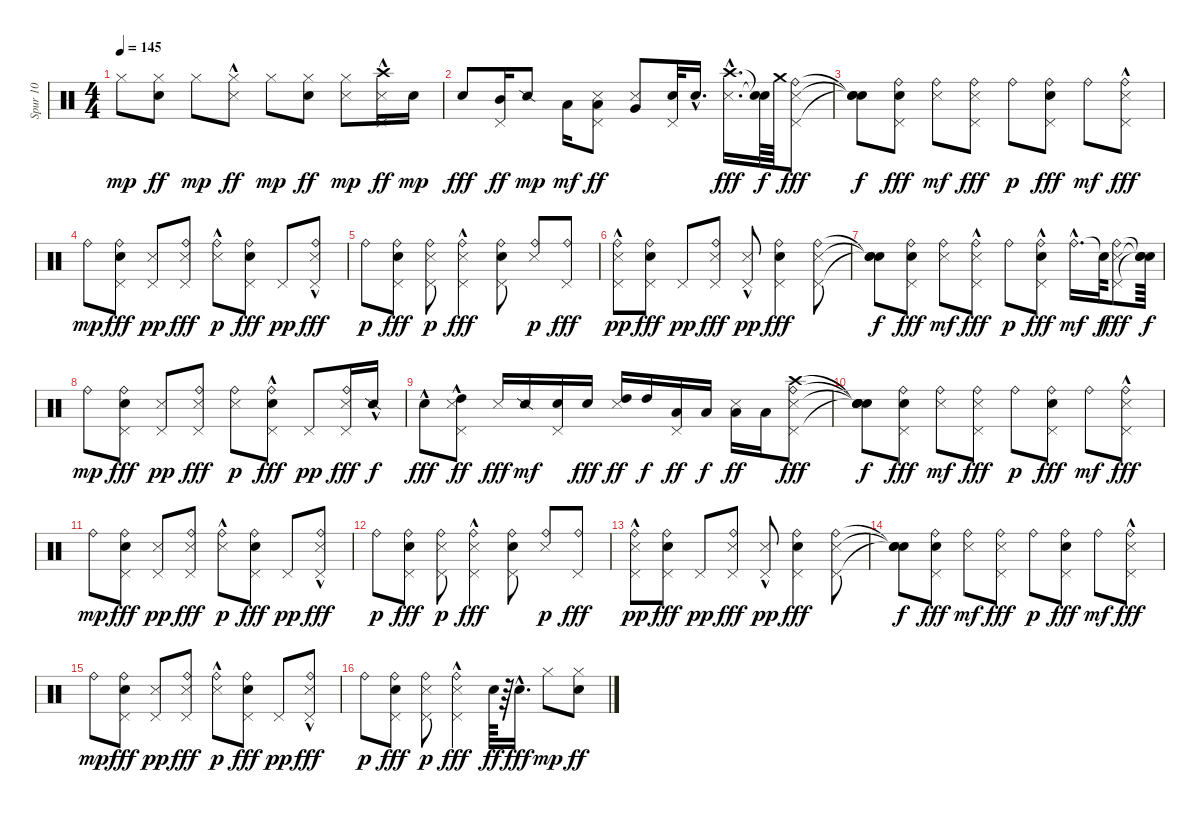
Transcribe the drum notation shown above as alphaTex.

\track ("Spur 10" "Spur 10") {instrument percussion}
\staff {score}
\articulation defaults
\ts (4 4)
\tempo 145
\clef neutral
\ks c "Hi-Hat (closed)".8{dy mp}
("Electric Snare (hit)" "Hi-Hat (closed)").8{dy ff} "Hi-Hat (closed)".8{dy mp} ("Metronome (hit)"{hac} "Hi-Hat (closed)").8{dy ff} "Hi-Hat (closed)".8{dy mp} ("Electric Snare (hit)" "Hi-Hat (closed)").8{dy ff} ("Metronome (hit)" "Hi-Hat (closed)").8{dy mp} ("Metronome (hit)" "Pedal Hi-Hat (hit)" "Crash high (hit)"{hac}).16{dy ff} "Electric Snare (hit)".16{dy mp} |
"Electric Snare (hit)".8{dy fff} ("Pedal Hi-Hat (hit)" "Mid Tom (hit)").16{dy ff} "Snare (side stick) 2".8{dy mp} "Low Tom (hit)".16{dy mf} ("Metronome (hit)" "Low Floor Tom (hit)" "Pedal Hi-Hat (hit)").8{dy ff} ("Metronome (hit)" "Very Low Tom (hit)").8 ("Electric Snare (hit)" "Pedal Hi-Hat (hit)").32 "Electric Snare (hit)"{hac}.16{d} ("Metronome (hit)"{hac} "Crash high (hit)"{hac}).16{d dy fff} ("Snare (hit)"{t} "Snare (hit)"{t}).64{dy f} "Crash medium (hit)".64 ("Metronome (hit)" "Pedal Hi-Hat (hit)" "Ride (bell)").8{dy fff} |
("Snare (hit)"{t} "Snare (hit)"{t} "Snare (hit)"{t}).8{dy f} ("Electric Snare (hit)" "Pedal Hi-Hat (hit)" "Ride (bell)").8{dy fff} ("Metronome (hit)" "Ride (bell)").8{dy mf} ("Metronome (hit)" "Pedal Hi-Hat (hit)" "Ride (bell)").8{dy fff} "Ride (bell)".8{dy p} ("Electric Snare (hit)" "Pedal Hi-Hat (hit)" "Ride (bell)").8{dy fff} "Ride (bell)".8{dy mf} ("Metronome (hit)"{hac} "Pedal Hi-Hat (hit)" "Ride (bell)").8{dy fff} |
"Ride (bell)".8{dy mp} ("Electric Snare (hit)" "Pedal Hi-Hat (hit)" "Ride (bell)").8{dy fff} ("Metronome (hit)" "Pedal Hi-Hat (hit)").8{dy pp} ("Metronome (hit)" "Pedal Hi-Hat (hit)" "Ride (bell)").8{dy fff} ("Metronome (hit)"{hac} "Ride (bell)").8{dy p} ("Electric Snare (hit)" "Pedal Hi-Hat (hit)" "Ride (bell)").8{dy fff} "Pedal Hi-Hat (hit)".8{dy pp} ("Metronome (hit)"{hac} "Pedal Hi-Hat (hit)" "Ride (bell)").8{dy fff} |
"Ride (bell)".8{dy p} ("Electric Snare (hit)" "Pedal Hi-Hat (hit)" "Ride (bell)").8{dy fff} ("Metronome (hit)" "Pedal Hi-Hat (hit)" "Ride (bell)").8{dy p} ("Metronome (hit)"{hac} "Pedal Hi-Hat (hit)" "Ride (bell)").4{dy fff} ("Electric Snare (hit)" "Pedal Hi-Hat (hit)" "Ride (bell)").8 ("Metronome (hit)" "Ride (bell)").8{dy p} ("Pedal Hi-Hat (hit)" "Ride (bell)").8{dy fff} |
("Metronome (hit)"{hac} "Pedal Hi-Hat (hit)" "Ride (bell)").8{dy pp} ("Electric Snare (hit)" "Pedal Hi-Hat (hit)" "Ride (bell)").8{dy fff} "Pedal Hi-Hat (hit)".8{dy pp} ("Metronome (hit)" "Pedal Hi-Hat (hit)" "Ride (bell)").8{dy fff} ("Metronome (hit)"{hac} "Pedal Hi-Hat (hit)").8{dy pp} ("Electric Snare (hit)" "Pedal Hi-Hat (hit)" "Ride (bell)").4{dy fff} ("Metronome (hit)" "Pedal Hi-Hat (hit)" "Ride (bell)").8 |
("Snare (hit)"{t} "Snare (hit)"{t} "Snare (hit)"{t}).8{dy f} ("Electric Snare (hit)" "Pedal Hi-Hat (hit)" "Ride (bell)").8{dy fff} ("Metronome (hit)" "Ride (bell)").8{dy mf} ("Metronome (hit)"{hac} "Pedal Hi-Hat (hit)" "Ride (bell)").8{dy fff} "Ride (bell)".8{dy p} ("Electric Snare (hit)" "Pedal Hi-Hat (hit)"{hac} "Ride (bell)").8{dy fff} "Ride (bell)"{hac}.16{d dy mf} "Snare (hit)"{t}.64{dy f} ("Metronome (hit)" "Pedal Hi-Hat (hit)" "Ride (bell)").8{dy fff} ("Snare (hit)"{t} "Snare (hit)"{t} "Snare (hit)"{t}).64{dy f} |
"Ride (bell)".8{dy mp} ("Electric Snare (hit)" "Pedal Hi-Hat (hit)" "Ride (bell)").8{dy fff} ("Metronome (hit)" "Pedal Hi-Hat (hit)").8{dy pp} ("Metronome (hit)" "Pedal Hi-Hat (hit)" "Ride (bell)").8{dy fff} ("Metronome (hit)" "Ride (bell)").8{dy p} ("Electric Snare (hit)"{hac} "Pedal Hi-Hat (hit)" "Ride (bell)").8{dy fff} "Pedal Hi-Hat (hit)".8{dy pp} ("Metronome (hit)" "Pedal Hi-Hat (hit)" "Ride (bell)").16{dy fff} "Snare (side stick) 2"{hac}.16{dy f} |
"Electric Snare (hit)"{hac}.8{dy fff} ("Metronome (hit)" "Pedal Hi-Hat (hit)" "High Tom (hit)"{hac}).8{dy ff} "Metronome (hit)".16{dy fff} "Snare (side stick) 2".16{dy mf} ("Electric Snare (hit)" "Pedal Hi-Hat (hit)").16 "Electric Snare (hit)".16{dy fff} ("Metronome (hit)" "High Tom (hit)").16{dy ff} "High Tom (hit)".16{dy f} ("Pedal Hi-Hat (hit)" "Low Tom (hit)").16{dy ff} "Low Tom (hit)".16{dy f} ("Metronome (hit)" "Low Floor Tom (hit)").16{dy ff} "Low Floor Tom (hit)".16 ("Crash high (hit)" "Metronome (hit)" "Pedal Hi-Hat (hit)" "Ride (bell)").8{dy fff} |
("Snare (hit)"{t} "Snare (hit)"{t} "Snare (hit)"{t} "Snare (hit)"{t}).8{dy f} ("Electric Snare (hit)" "Pedal Hi-Hat (hit)" "Ride (bell)").8{dy fff} ("Metronome (hit)" "Ride (bell)").8{dy mf} ("Metronome (hit)" "Pedal Hi-Hat (hit)" "Ride (bell)").8{dy fff} "Ride (bell)".8{dy p} ("Electric Snare (hit)" "Pedal Hi-Hat (hit)" "Ride (bell)").8{dy fff} "Ride (bell)".8{dy mf} ("Metronome (hit)"{hac} "Pedal Hi-Hat (hit)" "Ride (bell)").8{dy fff} |
"Ride (bell)".8{dy mp} ("Electric Snare (hit)" "Pedal Hi-Hat (hit)" "Ride (bell)").8{dy fff} ("Metronome (hit)" "Pedal Hi-Hat (hit)").8{dy pp} ("Metronome (hit)" "Pedal Hi-Hat (hit)" "Ride (bell)").8{dy fff} ("Metronome (hit)"{hac} "Ride (bell)").8{dy p} ("Electric Snare (hit)" "Pedal Hi-Hat (hit)" "Ride (bell)").8{dy fff} "Pedal Hi-Hat (hit)".8{dy pp} ("Metronome (hit)"{hac} "Pedal Hi-Hat (hit)" "Ride (bell)").8{dy fff} |
"Ride (bell)".8{dy p} ("Electric Snare (hit)" "Pedal Hi-Hat (hit)" "Ride (bell)").8{dy fff} ("Metronome (hit)" "Pedal Hi-Hat (hit)" "Ride (bell)").8{dy p} ("Metronome (hit)"{hac} "Pedal Hi-Hat (hit)" "Ride (bell)").4{dy fff} ("Electric Snare (hit)" "Pedal Hi-Hat (hit)" "Ride (bell)").8 ("Metronome (hit)" "Ride (bell)").8{dy p} ("Pedal Hi-Hat (hit)" "Ride (bell)").8{dy fff} |
("Metronome (hit)"{hac} "Pedal Hi-Hat (hit)" "Ride (bell)").8{dy pp} ("Electric Snare (hit)" "Pedal Hi-Hat (hit)" "Ride (bell)").8{dy fff} "Pedal Hi-Hat (hit)".8{dy pp} ("Metronome (hit)" "Pedal Hi-Hat (hit)" "Ride (bell)").8{dy fff} ("Metronome (hit)"{hac} "Pedal Hi-Hat (hit)").8{dy pp} ("Electric Snare (hit)" "Pedal Hi-Hat (hit)" "Ride (bell)").4{dy fff} ("Metronome (hit)" "Pedal Hi-Hat (hit)" "Ride (bell)").8 |
("Snare (hit)"{t} "Snare (hit)"{t} "Snare (hit)"{t}).8{dy f} ("Electric Snare (hit)" "Pedal Hi-Hat (hit)" "Ride (bell)").8{dy fff} ("Metronome (hit)" "Ride (bell)").8{dy mf} ("Metronome (hit)" "Pedal Hi-Hat (hit)" "Ride (bell)").8{dy fff} "Ride (bell)".8{dy p} ("Electric Snare (hit)" "Pedal Hi-Hat (hit)" "Ride (bell)").8{dy fff} "Ride (bell)".8{dy mf} ("Metronome (hit)"{hac} "Pedal Hi-Hat (hit)" "Ride (bell)").8{dy fff} |
"Ride (bell)".8{dy mp} ("Electric Snare (hit)" "Pedal Hi-Hat (hit)" "Ride (bell)").8{dy fff} ("Metronome (hit)" "Pedal Hi-Hat (hit)").8{dy pp} ("Metronome (hit)" "Pedal Hi-Hat (hit)" "Ride (bell)").8{dy fff} ("Metronome (hit)"{hac} "Ride (bell)").8{dy p} ("Electric Snare (hit)" "Pedal Hi-Hat (hit)" "Ride (bell)").8{dy fff} "Pedal Hi-Hat (hit)".8{dy pp} ("Metronome (hit)"{hac} "Pedal Hi-Hat (hit)" "Ride (bell)").8{dy fff} |
"Ride (bell)".8{dy p} ("Electric Snare (hit)" "Pedal Hi-Hat (hit)" "Ride (bell)").8{dy fff} ("Metronome (hit)" "Pedal Hi-Hat (hit)" "Ride (bell)").8{dy p} ("Metronome (hit)"{hac} "Pedal Hi-Hat (hit)" "Ride (bell)").4{dy fff} "Electric Snare (hit)".64{dy ff} r.64 "Electric Snare (hit)"{hac}.16{d dy fff} "Hi-Hat (closed)".8{dy mp} ("Electric Snare (hit)" "Hi-Hat (closed)").8{dy ff}
